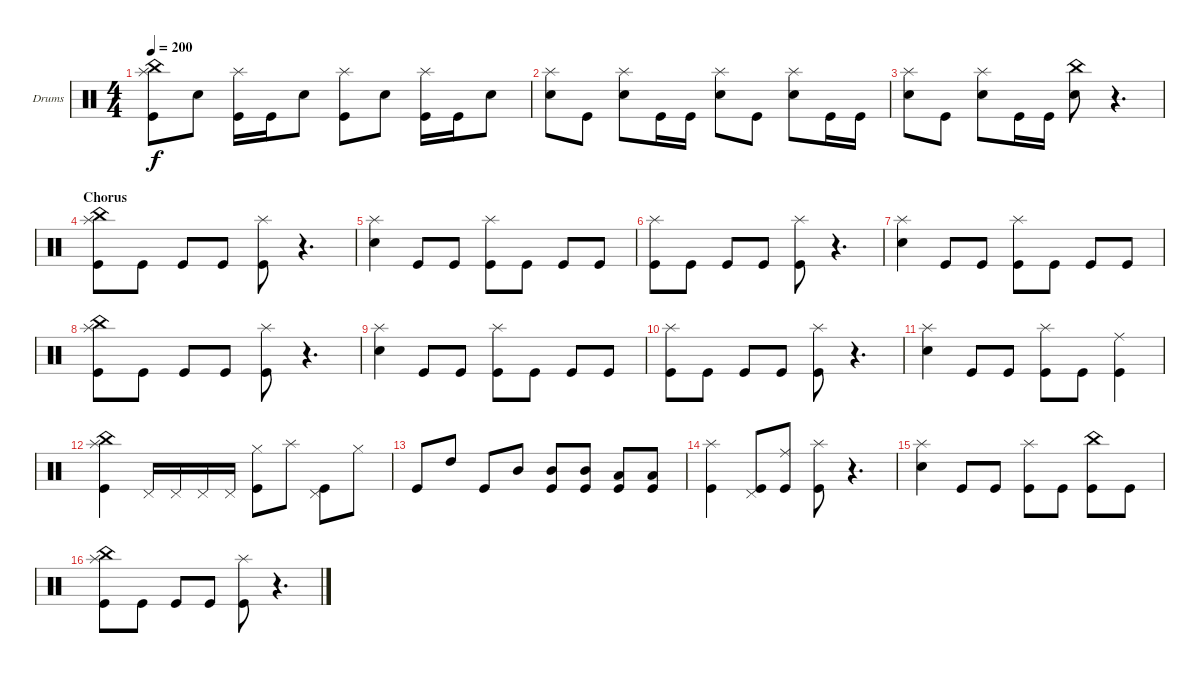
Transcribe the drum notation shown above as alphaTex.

\defaultSystemsLayout 4
\bracketExtendMode groupsimilarinstruments
\firstSystemTrackNameOrientation horizontal
\otherSystemsTrackNameOrientation horizontal
\track ("Drumkit" "Drums") {instrument percussion}
\staff {score}
\articulation defaults
\ts (4 4)
\tempo 200
\clef neutral
\ks c
("Splash (hit)" "Kick (hit)" "China (hit)").8{dy f} "Snare (hit) 2".8 ("Splash (hit)" "Kick (hit)").16 "Kick (hit)".16 "Snare (hit) 2".8 ("Splash (hit)" "Kick (hit)").8 "Snare (hit) 2".8 ("Splash (hit)" "Kick (hit)").16 "Kick (hit)".16 "Snare (hit) 2".8 |
("Splash (hit)" "Snare (hit) 2").8 "Kick (hit)".8 ("Splash (hit)" "Snare (hit) 2").8 "Kick (hit)".16 "Kick (hit)".16 ("Splash (hit)" "Snare (hit) 2").8 "Kick (hit)".8 ("Splash (hit)" "Snare (hit) 2").8 "Kick (hit)".16 "Kick (hit)".16 |
("Splash (hit)" "Snare (hit) 2").8 "Kick (hit)".8 ("Splash (hit)" "Snare (hit) 2").8 "Kick (hit)".16 "Kick (hit)".16 ("Snare (hit) 2" "China (hit)").8 r.4{d} |
\section ("" "Chorus")
("Kick (hit)" "Splash (hit)" "China (hit)").8 "Kick (hit)".8 "Kick (hit)".8 "Kick (hit)".8 ("Kick (hit)" "Splash (hit)").8 r.4{d} |
("Snare (hit) 2" "Splash (hit)").4 "Kick (hit)".8 "Kick (hit)".8 ("Kick (hit)" "Splash (hit)").8 "Kick (hit)".8 "Kick (hit)".8 "Kick (hit)".8 |
("Kick (hit)" "Splash (hit)").8 "Kick (hit)".8 "Kick (hit)".8 "Kick (hit)".8 ("Kick (hit)" "Splash (hit)").8 r.4{d} |
("Snare (hit) 2" "Splash (hit)").4 "Kick (hit)".8 "Kick (hit)".8 ("Kick (hit)" "Splash (hit)").8 "Kick (hit)".8 "Kick (hit)".8 "Kick (hit)".8 |
("Kick (hit)" "Splash (hit)" "China (hit)").8 "Kick (hit)".8 "Kick (hit)".8 "Kick (hit)".8 ("Kick (hit)" "Splash (hit)").8 r.4{d} |
("Snare (hit) 2" "Splash (hit)").4 "Kick (hit)".8 "Kick (hit)".8 ("Kick (hit)" "Splash (hit)").8 "Kick (hit)".8 "Kick (hit)".8 "Kick (hit)".8 |
("Kick (hit)" "Splash (hit)").8 "Kick (hit)".8 "Kick (hit)".8 "Kick (hit)".8 ("Kick (hit)" "Splash (hit)").8 r.4{d} |
("Snare (hit) 2" "Splash (hit)").4 "Kick (hit)".8 "Kick (hit)".8 ("Kick (hit)" "Splash (hit)").8 "Kick (hit)".8 ("Kick (hit)" "Ride (middle)").4 |
("Kick (hit)" "Splash (hit)" "China (hit)").4 "Pedal Hi-Hat (hit)".16 "Pedal Hi-Hat (hit)".16 "Pedal Hi-Hat (hit)".16 "Pedal Hi-Hat (hit)".16 ("Kick (hit)" "Hi-Hat (closed)").8 "Splash (hit)".8 ("Pedal Hi-Hat (hit)" "Kick (hit)").8 "Hi-Hat (closed)".8 |
"Kick (hit)".8 "High Tom (hit)".8 "Kick (hit)".8 "Mid Tom (hit)".8 ("Kick (hit)" "Mid Tom (hit)").8 ("Kick (hit)" "Mid Tom (hit)").8 ("Kick (hit)" "Low Tom (hit)").8 ("Kick (hit)" "Low Tom (hit)").8 |
("Kick (hit)" "Splash (hit)").4 ("Kick (hit)" "Pedal Hi-Hat (hit)").8 ("Kick (hit)" "Ride (middle)").8 ("Kick (hit)" "Splash (hit)").8 r.4{d} |
("Snare (hit) 2" "Splash (hit)").4 "Kick (hit)".8 "Kick (hit)".8 ("Kick (hit)" "Splash (hit)").8 "Kick (hit)".8 ("Kick (hit)" "China (hit)").8 "Kick (hit)".8 |
("Kick (hit)" "Splash (hit)" "China (hit)").8 "Kick (hit)".8 "Kick (hit)".8 "Kick (hit)".8 ("Kick (hit)" "Splash (hit)").8 r.4{d}
